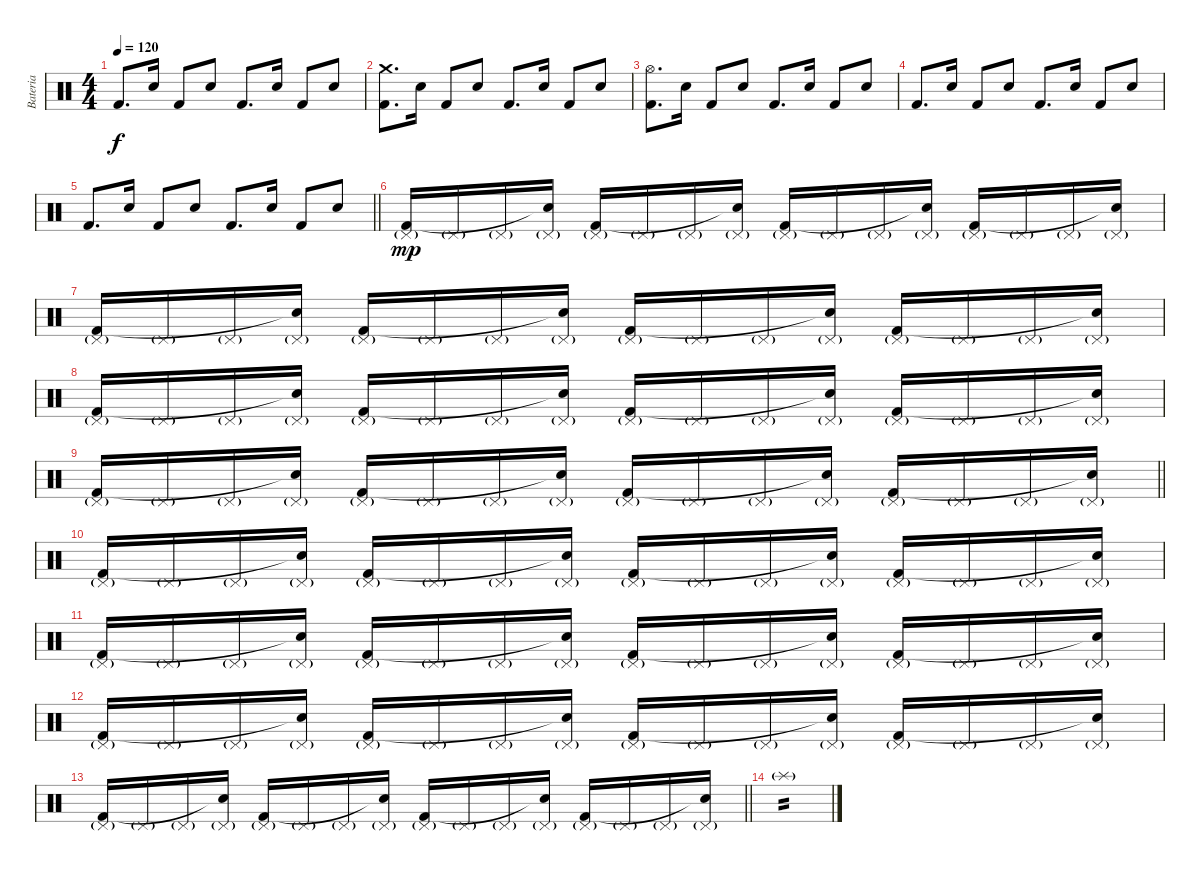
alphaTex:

\track ("Bateria" "Bateria") {instrument percussion}
\staff {score}
\articulation defaults
\ts (4 4)
\tempo 120
\clef neutral
\ks c "Kick (hit) 2".8{d dy f} "Snare (hit) 2".16 "Kick (hit) 2".8 "Snare (hit) 2".8 "Kick (hit) 2".8{d} "Snare (hit) 2".16 "Kick (hit) 2".8 "Snare (hit) 2".8
|
("Crash medium (hit)" "Kick (hit) 2").8{d} "Snare (hit) 2".16 "Kick (hit) 2".8 "Snare (hit) 2".8 "Kick (hit) 2".8{d} "Snare (hit) 2".16 "Kick (hit) 2".8 "Snare (hit) 2".8 |
("Hi-Hat (open)" "Kick (hit) 2").8{d} "Snare (hit) 2".16 "Kick (hit) 2".8 "Snare (hit) 2".8 "Kick (hit) 2".8{d} "Snare (hit) 2".16 "Kick (hit) 2".8 "Snare (hit) 2".8 |
"Kick (hit) 2".8{d} "Snare (hit) 2".16 "Kick (hit) 2".8 "Snare (hit) 2".8 "Kick (hit) 2".8{d} "Snare (hit) 2".16 "Kick (hit) 2".8 "Snare (hit) 2".8 |
\barLineRight lightlight "Kick (hit) 2".8{d} "Snare (hit) 2".16 "Kick (hit) 2".8 "Snare (hit) 2".8 "Kick (hit) 2".8{d} "Snare (hit) 2".16 "Kick (hit) 2".8 "Snare (hit) 2".8
|
\section ("" "")
("Pedal Hi-Hat (hit)"{g} "Kick (hit) 2").16{dy mp} "Pedal Hi-Hat (hit)"{g}.16 "Pedal Hi-Hat (hit)"{g}.16 ("Pedal Hi-Hat (hit)"{g} "Snare (hit)"{t}).16 ("Pedal Hi-Hat (hit)"{g} "Kick (hit) 2").16 "Pedal Hi-Hat (hit)"{g}.16 "Pedal Hi-Hat (hit)"{g}.16 ("Pedal Hi-Hat (hit)"{g} "Snare (hit)"{t}).16 ("Pedal Hi-Hat (hit)"{g} "Kick (hit) 2").16 "Pedal Hi-Hat (hit)"{g}.16 "Pedal Hi-Hat (hit)"{g}.16 ("Pedal Hi-Hat (hit)"{g} "Snare (hit)"{t}).16 ("Pedal Hi-Hat (hit)"{g} "Kick (hit) 2").16 "Pedal Hi-Hat (hit)"{g}.16 "Pedal Hi-Hat (hit)"{g}.16 ("Pedal Hi-Hat (hit)"{g} "Snare (hit)"{t}).16 |
("Pedal Hi-Hat (hit)"{g} "Kick (hit) 2").16 "Pedal Hi-Hat (hit)"{g}.16 "Pedal Hi-Hat (hit)"{g}.16 ("Pedal Hi-Hat (hit)"{g} "Snare (hit)"{t}).16 ("Pedal Hi-Hat (hit)"{g} "Kick (hit) 2").16 "Pedal Hi-Hat (hit)"{g}.16 "Pedal Hi-Hat (hit)"{g}.16 ("Pedal Hi-Hat (hit)"{g} "Snare (hit)"{t}).16 ("Pedal Hi-Hat (hit)"{g} "Kick (hit) 2").16 "Pedal Hi-Hat (hit)"{g}.16 "Pedal Hi-Hat (hit)"{g}.16 ("Pedal Hi-Hat (hit)"{g} "Snare (hit)"{t}).16 ("Pedal Hi-Hat (hit)"{g} "Kick (hit) 2").16 "Pedal Hi-Hat (hit)"{g}.16 "Pedal Hi-Hat (hit)"{g}.16 ("Pedal Hi-Hat (hit)"{g} "Snare (hit)"{t}).16 |
("Pedal Hi-Hat (hit)"{g} "Kick (hit) 2").16 "Pedal Hi-Hat (hit)"{g}.16 "Pedal Hi-Hat (hit)"{g}.16 ("Pedal Hi-Hat (hit)"{g} "Snare (hit)"{t}).16 ("Pedal Hi-Hat (hit)"{g} "Kick (hit) 2").16 "Pedal Hi-Hat (hit)"{g}.16 "Pedal Hi-Hat (hit)"{g}.16 ("Pedal Hi-Hat (hit)"{g} "Snare (hit)"{t}).16 ("Pedal Hi-Hat (hit)"{g} "Kick (hit) 2").16 "Pedal Hi-Hat (hit)"{g}.16 "Pedal Hi-Hat (hit)"{g}.16 ("Pedal Hi-Hat (hit)"{g} "Snare (hit)"{t}).16 ("Pedal Hi-Hat (hit)"{g} "Kick (hit) 2").16 "Pedal Hi-Hat (hit)"{g}.16 "Pedal Hi-Hat (hit)"{g}.16 ("Pedal Hi-Hat (hit)"{g} "Snare (hit)"{t}).16 |
\barLineRight lightlight
("Pedal Hi-Hat (hit)"{g} "Kick (hit) 2").16 "Pedal Hi-Hat (hit)"{g}.16 "Pedal Hi-Hat (hit)"{g}.16 ("Pedal Hi-Hat (hit)"{g} "Snare (hit)"{t}).16 ("Pedal Hi-Hat (hit)"{g} "Kick (hit) 2").16 "Pedal Hi-Hat (hit)"{g}.16 "Pedal Hi-Hat (hit)"{g}.16 ("Pedal Hi-Hat (hit)"{g} "Snare (hit)"{t}).16 ("Pedal Hi-Hat (hit)"{g} "Kick (hit) 2").16 "Pedal Hi-Hat (hit)"{g}.16 "Pedal Hi-Hat (hit)"{g}.16 ("Pedal Hi-Hat (hit)"{g} "Snare (hit)"{t}).16 ("Pedal Hi-Hat (hit)"{g} "Kick (hit) 2").16 "Pedal Hi-Hat (hit)"{g}.16 "Pedal Hi-Hat (hit)"{g}.16 ("Pedal Hi-Hat (hit)"{g} "Snare (hit)"{t}).16 |
("Pedal Hi-Hat (hit)"{g} "Kick (hit) 2").16 "Pedal Hi-Hat (hit)"{g}.16 "Pedal Hi-Hat (hit)"{g}.16 ("Pedal Hi-Hat (hit)"{g} "Snare (hit)"{t}).16 ("Pedal Hi-Hat (hit)"{g} "Kick (hit) 2").16 "Pedal Hi-Hat (hit)"{g}.16 "Pedal Hi-Hat (hit)"{g}.16 ("Pedal Hi-Hat (hit)"{g} "Snare (hit)"{t}).16 ("Pedal Hi-Hat (hit)"{g} "Kick (hit) 2").16 "Pedal Hi-Hat (hit)"{g}.16 "Pedal Hi-Hat (hit)"{g}.16 ("Pedal Hi-Hat (hit)"{g} "Snare (hit)"{t}).16 ("Pedal Hi-Hat (hit)"{g} "Kick (hit) 2").16 "Pedal Hi-Hat (hit)"{g}.16 "Pedal Hi-Hat (hit)"{g}.16 ("Pedal Hi-Hat (hit)"{g} "Snare (hit)"{t}).16 |
("Pedal Hi-Hat (hit)"{g} "Kick (hit) 2").16 "Pedal Hi-Hat (hit)"{g}.16 "Pedal Hi-Hat (hit)"{g}.16 ("Pedal Hi-Hat (hit)"{g} "Snare (hit)"{t}).16 ("Pedal Hi-Hat (hit)"{g} "Kick (hit) 2").16 "Pedal Hi-Hat (hit)"{g}.16 "Pedal Hi-Hat (hit)"{g}.16 ("Pedal Hi-Hat (hit)"{g} "Snare (hit)"{t}).16 ("Pedal Hi-Hat (hit)"{g} "Kick (hit) 2").16 "Pedal Hi-Hat (hit)"{g}.16 "Pedal Hi-Hat (hit)"{g}.16 ("Pedal Hi-Hat (hit)"{g} "Snare (hit)"{t}).16 ("Pedal Hi-Hat (hit)"{g} "Kick (hit) 2").16 "Pedal Hi-Hat (hit)"{g}.16 "Pedal Hi-Hat (hit)"{g}.16 ("Pedal Hi-Hat (hit)"{g} "Snare (hit)"{t}).16 |
("Pedal Hi-Hat (hit)"{g} "Kick (hit) 2").16 "Pedal Hi-Hat (hit)"{g}.16 "Pedal Hi-Hat (hit)"{g}.16 ("Pedal Hi-Hat (hit)"{g} "Snare (hit)"{t}).16 ("Pedal Hi-Hat (hit)"{g} "Kick (hit) 2").16 "Pedal Hi-Hat (hit)"{g}.16 "Pedal Hi-Hat (hit)"{g}.16 ("Pedal Hi-Hat (hit)"{g} "Snare (hit)"{t}).16 ("Pedal Hi-Hat (hit)"{g} "Kick (hit) 2").16 "Pedal Hi-Hat (hit)"{g}.16 "Pedal Hi-Hat (hit)"{g}.16 ("Pedal Hi-Hat (hit)"{g} "Snare (hit)"{t}).16 ("Pedal Hi-Hat (hit)"{g} "Kick (hit) 2").16 "Pedal Hi-Hat (hit)"{g}.16 "Pedal Hi-Hat (hit)"{g}.16 ("Pedal Hi-Hat (hit)"{g} "Snare (hit)"{t}).16 |
\barLineRight lightlight
("Pedal Hi-Hat (hit)"{g} "Kick (hit) 2").16 "Pedal Hi-Hat (hit)"{g}.16 "Pedal Hi-Hat (hit)"{g}.16 ("Pedal Hi-Hat (hit)"{g} "Snare (hit)"{t}).16 ("Pedal Hi-Hat (hit)"{g} "Kick (hit) 2").16 "Pedal Hi-Hat (hit)"{g}.16 "Pedal Hi-Hat (hit)"{g}.16 ("Pedal Hi-Hat (hit)"{g} "Snare (hit)"{t}).16 ("Pedal Hi-Hat (hit)"{g} "Kick (hit) 2").16 "Pedal Hi-Hat (hit)"{g}.16 "Pedal Hi-Hat (hit)"{g}.16 ("Pedal Hi-Hat (hit)"{g} "Snare (hit)"{t}).16 ("Pedal Hi-Hat (hit)"{g} "Kick (hit) 2").16 "Pedal Hi-Hat (hit)"{g}.16 "Pedal Hi-Hat (hit)"{g}.16 ("Pedal Hi-Hat (hit)"{g} "Snare (hit)"{t}).16 |
"Splash (hit)"{g}.1{tp 2}
